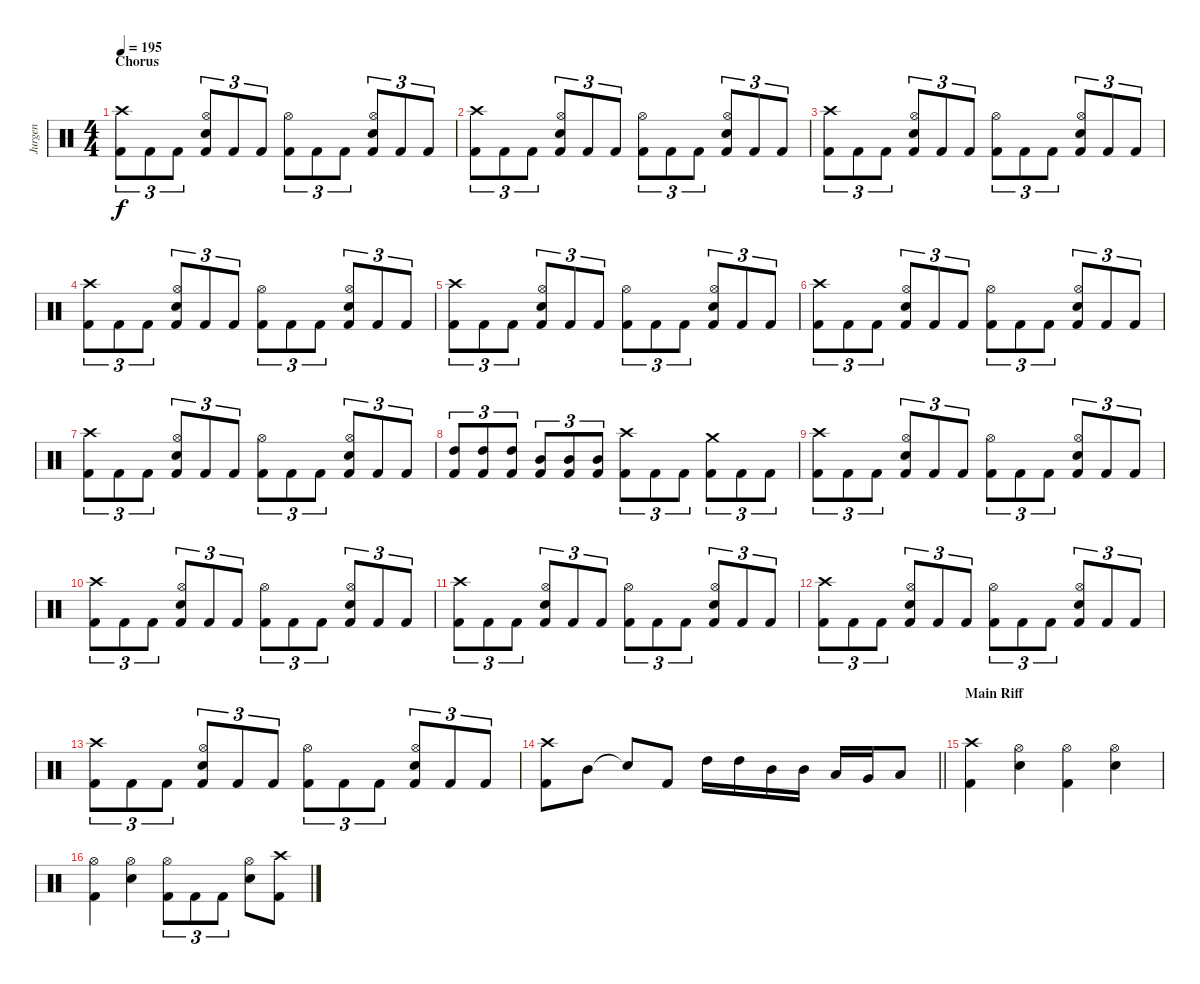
\track ("Jurgen" "Jurgen") {instrument percussion}
\staff {score}
\articulation defaults
\ts (4 4)
\section ("" "Chorus")
\tempo 195
\clef neutral
\ks c
("Crash high (hit)" "Kick (hit) 2").8{tu (3 2) dy f} "Kick (hit) 2".8{tu (3 2)} "Kick (hit) 2".8{tu (3 2)} ("Hi-Hat (open)" "Snare (hit) 2" "Kick (hit) 2").8{tu (3 2)} "Kick (hit) 2".8{tu (3 2)} "Kick (hit) 2".8{tu (3 2)} ("Hi-Hat (open)" "Kick (hit) 2").8{tu (3 2)} "Kick (hit) 2".8{tu (3 2)} "Kick (hit) 2".8{tu (3 2)} ("Hi-Hat (open)" "Snare (hit) 2" "Kick (hit) 2").8{tu (3 2)} "Kick (hit) 2".8{tu (3 2)} "Kick (hit) 2".8{tu (3 2)} |
("Crash high (hit)" "Kick (hit) 2").8{tu (3 2)} "Kick (hit) 2".8{tu (3 2)} "Kick (hit) 2".8{tu (3 2)} ("Hi-Hat (open)" "Snare (hit) 2" "Kick (hit) 2").8{tu (3 2)} "Kick (hit) 2".8{tu (3 2)} "Kick (hit) 2".8{tu (3 2)} ("Hi-Hat (open)" "Kick (hit) 2").8{tu (3 2)} "Kick (hit) 2".8{tu (3 2)} "Kick (hit) 2".8{tu (3 2)} ("Hi-Hat (open)" "Snare (hit) 2" "Kick (hit) 2").8{tu (3 2)} "Kick (hit) 2".8{tu (3 2)} "Kick (hit) 2".8{tu (3 2)} |
("Crash high (hit)" "Kick (hit) 2").8{tu (3 2)} "Kick (hit) 2".8{tu (3 2)} "Kick (hit) 2".8{tu (3 2)} ("Hi-Hat (open)" "Snare (hit) 2" "Kick (hit) 2").8{tu (3 2)} "Kick (hit) 2".8{tu (3 2)} "Kick (hit) 2".8{tu (3 2)} ("Hi-Hat (open)" "Kick (hit) 2").8{tu (3 2)} "Kick (hit) 2".8{tu (3 2)} "Kick (hit) 2".8{tu (3 2)} ("Hi-Hat (open)" "Snare (hit) 2" "Kick (hit) 2").8{tu (3 2)} "Kick (hit) 2".8{tu (3 2)} "Kick (hit) 2".8{tu (3 2)} |
("Crash high (hit)" "Kick (hit) 2").8{tu (3 2)} "Kick (hit) 2".8{tu (3 2)} "Kick (hit) 2".8{tu (3 2)} ("Hi-Hat (open)" "Snare (hit) 2" "Kick (hit) 2").8{tu (3 2)} "Kick (hit) 2".8{tu (3 2)} "Kick (hit) 2".8{tu (3 2)} ("Hi-Hat (open)" "Kick (hit) 2").8{tu (3 2)} "Kick (hit) 2".8{tu (3 2)} "Kick (hit) 2".8{tu (3 2)} ("Hi-Hat (open)" "Snare (hit) 2" "Kick (hit) 2").8{tu (3 2)} "Kick (hit) 2".8{tu (3 2)} "Kick (hit) 2".8{tu (3 2)} |
("Crash high (hit)" "Kick (hit) 2").8{tu (3 2)} "Kick (hit) 2".8{tu (3 2)} "Kick (hit) 2".8{tu (3 2)} ("Hi-Hat (open)" "Snare (hit) 2" "Kick (hit) 2").8{tu (3 2)} "Kick (hit) 2".8{tu (3 2)} "Kick (hit) 2".8{tu (3 2)} ("Hi-Hat (open)" "Kick (hit) 2").8{tu (3 2)} "Kick (hit) 2".8{tu (3 2)} "Kick (hit) 2".8{tu (3 2)} ("Hi-Hat (open)" "Snare (hit) 2" "Kick (hit) 2").8{tu (3 2)} "Kick (hit) 2".8{tu (3 2)} "Kick (hit) 2".8{tu (3 2)} |
("Crash high (hit)" "Kick (hit) 2").8{tu (3 2)} "Kick (hit) 2".8{tu (3 2)} "Kick (hit) 2".8{tu (3 2)} ("Hi-Hat (open)" "Snare (hit) 2" "Kick (hit) 2").8{tu (3 2)} "Kick (hit) 2".8{tu (3 2)} "Kick (hit) 2".8{tu (3 2)} ("Hi-Hat (open)" "Kick (hit) 2").8{tu (3 2)} "Kick (hit) 2".8{tu (3 2)} "Kick (hit) 2".8{tu (3 2)} ("Hi-Hat (open)" "Snare (hit) 2" "Kick (hit) 2").8{tu (3 2)} "Kick (hit) 2".8{tu (3 2)} "Kick (hit) 2".8{tu (3 2)} |
("Crash high (hit)" "Kick (hit) 2").8{tu (3 2)} "Kick (hit) 2".8{tu (3 2)} "Kick (hit) 2".8{tu (3 2)} ("Hi-Hat (open)" "Snare (hit) 2" "Kick (hit) 2").8{tu (3 2)} "Kick (hit) 2".8{tu (3 2)} "Kick (hit) 2".8{tu (3 2)} ("Hi-Hat (open)" "Kick (hit) 2").8{tu (3 2)} "Kick (hit) 2".8{tu (3 2)} "Kick (hit) 2".8{tu (3 2)} ("Hi-Hat (open)" "Snare (hit) 2" "Kick (hit) 2").8{tu (3 2)} "Kick (hit) 2".8{tu (3 2)} "Kick (hit) 2".8{tu (3 2)} |
("High Tom (hit)" "Kick (hit) 2").8{tu (3 2)} ("High Tom (hit)" "Kick (hit) 2").8{tu (3 2)} ("High Tom (hit)" "Kick (hit) 2").8{tu (3 2)} ("Mid Tom (hit)" "Kick (hit) 2").8{tu (3 2)} ("Mid Tom (hit)" "Kick (hit) 2").8{tu (3 2)} ("Mid Tom (hit)" "Kick (hit) 2").8{tu (3 2)} ("Crash high (hit)" "Kick (hit) 2").8{tu (3 2)} "Kick (hit) 2".8{tu (3 2)} "Kick (hit) 2".8{tu (3 2)} ("Crash medium (hit)" "Kick (hit) 2").8{tu (3 2)} "Kick (hit) 2".8{tu (3 2)} "Kick (hit) 2".8{tu (3 2)} |
("Crash high (hit)" "Kick (hit) 2").8{tu (3 2)} "Kick (hit) 2".8{tu (3 2)} "Kick (hit) 2".8{tu (3 2)} ("Hi-Hat (open)" "Snare (hit) 2" "Kick (hit) 2").8{tu (3 2)} "Kick (hit) 2".8{tu (3 2)} "Kick (hit) 2".8{tu (3 2)} ("Hi-Hat (open)" "Kick (hit) 2").8{tu (3 2)} "Kick (hit) 2".8{tu (3 2)} "Kick (hit) 2".8{tu (3 2)} ("Hi-Hat (open)" "Snare (hit) 2" "Kick (hit) 2").8{tu (3 2)} "Kick (hit) 2".8{tu (3 2)} "Kick (hit) 2".8{tu (3 2)} |
("Crash high (hit)" "Kick (hit) 2").8{tu (3 2)} "Kick (hit) 2".8{tu (3 2)} "Kick (hit) 2".8{tu (3 2)} ("Hi-Hat (open)" "Snare (hit) 2" "Kick (hit) 2").8{tu (3 2)} "Kick (hit) 2".8{tu (3 2)} "Kick (hit) 2".8{tu (3 2)} ("Hi-Hat (open)" "Kick (hit) 2").8{tu (3 2)} "Kick (hit) 2".8{tu (3 2)} "Kick (hit) 2".8{tu (3 2)} ("Hi-Hat (open)" "Snare (hit) 2" "Kick (hit) 2").8{tu (3 2)} "Kick (hit) 2".8{tu (3 2)} "Kick (hit) 2".8{tu (3 2)} |
("Crash high (hit)" "Kick (hit) 2").8{tu (3 2)} "Kick (hit) 2".8{tu (3 2)} "Kick (hit) 2".8{tu (3 2)} ("Hi-Hat (open)" "Snare (hit) 2" "Kick (hit) 2").8{tu (3 2)} "Kick (hit) 2".8{tu (3 2)} "Kick (hit) 2".8{tu (3 2)} ("Hi-Hat (open)" "Kick (hit) 2").8{tu (3 2)} "Kick (hit) 2".8{tu (3 2)} "Kick (hit) 2".8{tu (3 2)} ("Hi-Hat (open)" "Snare (hit) 2" "Kick (hit) 2").8{tu (3 2)} "Kick (hit) 2".8{tu (3 2)} "Kick (hit) 2".8{tu (3 2)} |
("Crash high (hit)" "Kick (hit) 2").8{tu (3 2)} "Kick (hit) 2".8{tu (3 2)} "Kick (hit) 2".8{tu (3 2)} ("Hi-Hat (open)" "Snare (hit) 2" "Kick (hit) 2").8{tu (3 2)} "Kick (hit) 2".8{tu (3 2)} "Kick (hit) 2".8{tu (3 2)} ("Hi-Hat (open)" "Kick (hit) 2").8{tu (3 2)} "Kick (hit) 2".8{tu (3 2)} "Kick (hit) 2".8{tu (3 2)} ("Hi-Hat (open)" "Snare (hit) 2" "Kick (hit) 2").8{tu (3 2)} "Kick (hit) 2".8{tu (3 2)} "Kick (hit) 2".8{tu (3 2)} |
("Crash high (hit)" "Kick (hit) 2").8{tu (3 2)} "Kick (hit) 2".8{tu (3 2)} "Kick (hit) 2".8{tu (3 2)} ("Hi-Hat (open)" "Snare (hit) 2" "Kick (hit) 2").8{tu (3 2)} "Kick (hit) 2".8{tu (3 2)} "Kick (hit) 2".8{tu (3 2)} ("Hi-Hat (open)" "Kick (hit) 2").8{tu (3 2)} "Kick (hit) 2".8{tu (3 2)} "Kick (hit) 2".8{tu (3 2)} ("Hi-Hat (open)" "Snare (hit) 2" "Kick (hit) 2").8{tu (3 2)} "Kick (hit) 2".8{tu (3 2)} "Kick (hit) 2".8{tu (3 2)} |
\barLineRight lightlight
("Crash high (hit)" "Kick (hit) 2").8 "Mid Tom (hit)".8 "Snare (hit)"{t}.8 "Kick (hit) 2".8 "High Tom (hit)".16 "High Tom (hit)".16 "Mid Tom (hit)".16 "Mid Tom (hit)".16 "Low Tom (hit)".16 "Very Low Tom (hit)".16 "Low Floor Tom (hit)".8 |
\section ("" "Main Riff")
("Crash high (hit)" "Kick (hit) 2").4 ("Hi-Hat (open)" "Snare (hit) 2").4 ("Hi-Hat (open)" "Kick (hit) 2").4 ("Hi-Hat (open)" "Snare (hit) 2").4 |
("Hi-Hat (open)" "Kick (hit) 2").4 ("Hi-Hat (open)" "Snare (hit) 2").4 ("Hi-Hat (open)" "Kick (hit) 2").8{tu (3 2)} "Kick (hit) 2".8{tu (3 2)} "Kick (hit) 2".8{tu (3 2)} ("Hi-Hat (open)" "Snare (hit) 2").8 ("Crash high (hit)" "Kick (hit) 2").8
